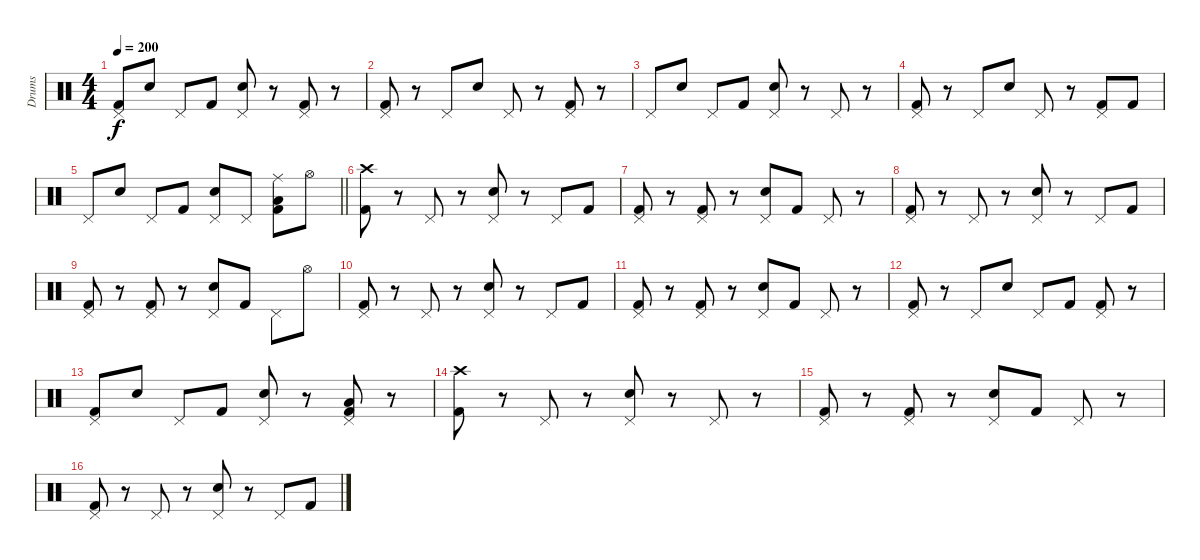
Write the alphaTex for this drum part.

\track ("Drums" "Drums") {instrument percussion}
\staff {score}
\articulation defaults
\ts (4 4)
\tempo 200
\clef neutral
\ks c
("Pedal Hi-Hat (hit)" "Kick (hit) 2").8{dy f} "Snare (hit) 2".8 "Pedal Hi-Hat (hit)".8 "Kick (hit) 2".8 ("Pedal Hi-Hat (hit)" "Snare (hit) 2").8 r.8 ("Pedal Hi-Hat (hit)" "Kick (hit) 2").8 r.8 |
("Pedal Hi-Hat (hit)" "Kick (hit) 2").8 r.8 "Pedal Hi-Hat (hit)".8 "Snare (hit) 2".8 "Pedal Hi-Hat (hit)".8 r.8 ("Pedal Hi-Hat (hit)" "Kick (hit) 2").8 r.8 |
"Pedal Hi-Hat (hit)".8 "Snare (hit) 2".8 "Pedal Hi-Hat (hit)".8 "Kick (hit) 2".8 ("Pedal Hi-Hat (hit)" "Snare (hit) 2").8 r.8 "Pedal Hi-Hat (hit)".8 r.8 |
("Pedal Hi-Hat (hit)" "Kick (hit) 2").8 r.8 "Pedal Hi-Hat (hit)".8 "Snare (hit) 2".8 "Pedal Hi-Hat (hit)".8 r.8 ("Pedal Hi-Hat (hit)" "Kick (hit) 2").8 "Kick (hit) 2".8 |
\barLineRight lightlight "Pedal Hi-Hat (hit)".8 "Snare (hit) 2".8 "Pedal Hi-Hat (hit)".8 "Kick (hit) 2".8
("Pedal Hi-Hat (hit)" "Snare (hit) 2").8 "Pedal Hi-Hat (hit)".8 ("Ride (middle)" "Low Floor Tom (hit)" "Kick (hit) 2").8 "Hi-Hat (open)".8 |
("Crash high (hit)" "Kick (hit) 2").8 r.8 "Pedal Hi-Hat (hit)".8 r.8 ("Pedal Hi-Hat (hit)" "Snare (hit) 2").8 r.8 "Pedal Hi-Hat (hit)".8 "Kick (hit) 2".8 |
("Pedal Hi-Hat (hit)" "Kick (hit) 2").8 r.8 ("Pedal Hi-Hat (hit)" "Kick (hit) 2").8 r.8 ("Pedal Hi-Hat (hit)" "Snare (hit) 2").8 "Kick (hit) 2".8 "Pedal Hi-Hat (hit)".8 r.8 |
("Pedal Hi-Hat (hit)" "Kick (hit) 2").8 r.8 "Pedal Hi-Hat (hit)".8 r.8 ("Pedal Hi-Hat (hit)" "Snare (hit) 2").8 r.8 "Pedal Hi-Hat (hit)".8 "Kick (hit) 2".8 |
("Pedal Hi-Hat (hit)" "Kick (hit) 2").8 r.8 ("Pedal Hi-Hat (hit)" "Kick (hit) 2").8 r.8 ("Pedal Hi-Hat (hit)" "Snare (hit) 2").8 "Kick (hit) 2".8 "Pedal Hi-Hat (hit)".8 "Hi-Hat (open)".8 |
("Pedal Hi-Hat (hit)" "Kick (hit) 2").8 r.8 "Pedal Hi-Hat (hit)".8 r.8 ("Pedal Hi-Hat (hit)" "Snare (hit) 2").8 r.8 "Pedal Hi-Hat (hit)".8 "Kick (hit) 2".8 |
("Pedal Hi-Hat (hit)" "Kick (hit) 2").8 r.8 ("Pedal Hi-Hat (hit)" "Kick (hit) 2").8 r.8 ("Pedal Hi-Hat (hit)" "Snare (hit) 2").8 "Kick (hit) 2".8 "Pedal Hi-Hat (hit)".8 r.8 |
("Pedal Hi-Hat (hit)" "Kick (hit) 2").8 r.8 "Pedal Hi-Hat (hit)".8 "Snare (hit) 2".8 "Pedal Hi-Hat (hit)".8 "Kick (hit) 2".8 ("Pedal Hi-Hat (hit)" "Kick (hit) 2").8 r.8 |
("Pedal Hi-Hat (hit)" "Kick (hit) 2").8 "Snare (hit) 2".8 "Pedal Hi-Hat (hit)".8 "Kick (hit) 2".8 ("Pedal Hi-Hat (hit)" "Snare (hit) 2").8 r.8 ("Pedal Hi-Hat (hit)" "Low Floor Tom (hit)" "Kick (hit) 2").8 r.8 |
("Crash high (hit)" "Kick (hit) 2").8 r.8 "Pedal Hi-Hat (hit)".8 r.8 ("Pedal Hi-Hat (hit)" "Snare (hit) 2").8 r.8 "Pedal Hi-Hat (hit)".8 r.8 |
("Pedal Hi-Hat (hit)" "Kick (hit) 2").8 r.8 ("Pedal Hi-Hat (hit)" "Kick (hit) 2").8 r.8 ("Pedal Hi-Hat (hit)" "Snare (hit) 2").8 "Kick (hit) 2".8 "Pedal Hi-Hat (hit)".8 r.8 |
("Pedal Hi-Hat (hit)" "Kick (hit) 2").8 r.8 "Pedal Hi-Hat (hit)".8 r.8 ("Pedal Hi-Hat (hit)" "Snare (hit) 2").8 r.8 "Pedal Hi-Hat (hit)".8 "Kick (hit) 2".8
